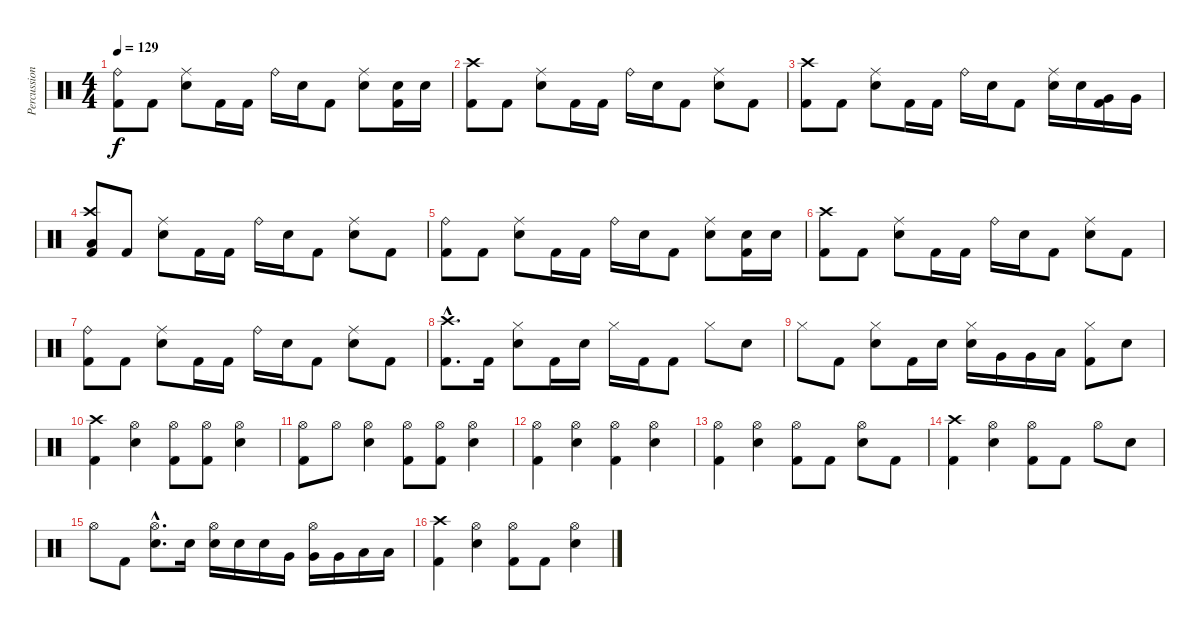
\track ("Percussions" "Percussion") {instrument percussion}
\staff {score}
\articulation defaults
\ts (4 4)
\tempo 129
\clef neutral
\ks c
("Ride (bell)" "Kick (hit) 2").8{dy f} "Kick (hit) 2".8 ("Ride (middle)" "Electric Snare (hit)").8 "Kick (hit) 2".16 "Kick (hit) 2".16 "Ride (bell)".16 "Electric Snare (hit)".16 "Kick (hit) 2".8 ("Ride (middle)" "Electric Snare (hit)").8 ("Electric Snare (hit)" "Kick (hit) 2").16 "Electric Snare (hit)".16 |
("Crash high (hit)" "Kick (hit) 2").8 "Kick (hit) 2".8 ("Ride (middle)" "Electric Snare (hit)").8 "Kick (hit) 2".16 "Kick (hit) 2".16 "Ride (bell)".16 "Electric Snare (hit)".16 "Kick (hit) 2".8 ("Ride (middle)" "Electric Snare (hit)").8 "Kick (hit) 2".8 |
("Crash high (hit)" "Kick (hit) 2").8 "Kick (hit) 2".8 ("Ride (middle)" "Electric Snare (hit)").8 "Kick (hit) 2".16 "Kick (hit) 2".16 "Ride (bell)".16 "Electric Snare (hit)".16 "Kick (hit) 2".8 ("Ride (middle)" "Electric Snare (hit)").16 "Electric Snare (hit)".16 ("Very Low Tom (hit)" "Kick (hit) 2").16 "Very Low Tom (hit)".16 |
("Crash high (hit)" "Low Floor Tom (hit)" "Kick (hit) 2").8 "Kick (hit) 2".8 ("Ride (middle)" "Electric Snare (hit)").8 "Kick (hit) 2".16 "Kick (hit) 2".16 "Ride (bell)".16 "Electric Snare (hit)".16 "Kick (hit) 2".8 ("Ride (middle)" "Electric Snare (hit)").8 "Kick (hit) 2".8 |
("Ride (bell)" "Kick (hit) 2").8 "Kick (hit) 2".8 ("Ride (middle)" "Electric Snare (hit)").8 "Kick (hit) 2".16 "Kick (hit) 2".16 "Ride (bell)".16 "Electric Snare (hit)".16 "Kick (hit) 2".8 ("Ride (middle)" "Electric Snare (hit)").8 ("Electric Snare (hit)" "Kick (hit) 2").16 "Electric Snare (hit)".16 |
("Crash high (hit)" "Kick (hit) 2").8 "Kick (hit) 2".8 ("Ride (middle)" "Electric Snare (hit)").8 "Kick (hit) 2".16 "Kick (hit) 2".16 "Ride (bell)".16 "Electric Snare (hit)".16 "Kick (hit) 2".8 ("Ride (middle)" "Electric Snare (hit)").8 "Kick (hit) 2".8 |
("Ride (bell)" "Kick (hit) 2").8 "Kick (hit) 2".8 ("Ride (middle)" "Electric Snare (hit)").8 "Kick (hit) 2".16 "Kick (hit) 2".16 "Ride (bell)".16 "Electric Snare (hit)".16 "Kick (hit) 2".8 ("Ride (middle)" "Electric Snare (hit)").8 "Kick (hit) 2".8 |
("Crash high (hit)"{hac} "Kick (hit) 2"{hac}).8{d} "Kick (hit) 2".16 ("Hi-Hat (closed)" "Electric Snare (hit)").8 "Kick (hit) 2".16 "Electric Snare (hit)".16 "Hi-Hat (closed)".16 "Kick (hit) 2".16 "Kick (hit) 2".8 "Hi-Hat (closed)".8 "Electric Snare (hit)".8 |
"Hi-Hat (closed)".8 "Kick (hit) 2".8 ("Hi-Hat (closed)" "Electric Snare (hit)").8 "Kick (hit) 2".16 "Electric Snare (hit)".16 ("Hi-Hat (closed)" "Electric Snare (hit)").16 "Very Low Tom (hit)".16 "Very Low Tom (hit)".16 "Low Floor Tom (hit)".16 ("Hi-Hat (closed)" "Kick (hit) 2").8 "Electric Snare (hit)".8 |
("Crash high (hit)" "Kick (hit) 2").4 ("Hi-Hat (open)" "Electric Snare (hit)").4 ("Hi-Hat (open)" "Kick (hit) 2").8 ("Hi-Hat (open)" "Kick (hit) 2").8 ("Hi-Hat (open)" "Electric Snare (hit)").4 |
("Hi-Hat (open)" "Kick (hit) 2").8 "Hi-Hat (open)".8 ("Hi-Hat (open)" "Electric Snare (hit)").4 ("Hi-Hat (open)" "Kick (hit) 2").8 ("Hi-Hat (open)" "Kick (hit) 2").8 ("Hi-Hat (open)" "Electric Snare (hit)").4 |
("Hi-Hat (open)" "Kick (hit) 2").4 ("Hi-Hat (open)" "Electric Snare (hit)").4 ("Hi-Hat (open)" "Kick (hit) 2").4 ("Hi-Hat (open)" "Electric Snare (hit)").4 |
("Hi-Hat (open)" "Kick (hit) 2").4 ("Hi-Hat (open)" "Electric Snare (hit)").4 ("Hi-Hat (open)" "Kick (hit) 2").8 "Kick (hit) 2".8 ("Hi-Hat (open)" "Electric Snare (hit)").8 "Kick (hit) 2".8 |
("Crash high (hit)" "Kick (hit) 2").4 ("Hi-Hat (open)" "Electric Snare (hit)").4 ("Hi-Hat (open)" "Kick (hit) 2").8 "Kick (hit) 2".8 "Hi-Hat (open)".8 "Electric Snare (hit)".8 |
"Hi-Hat (open)".8 "Kick (hit) 2".8 ("Hi-Hat (open)"{hac} "Electric Snare (hit)"{hac}).8{d} "Electric Snare (hit)".16 ("Hi-Hat (open)" "Electric Snare (hit)").16 "Electric Snare (hit)".16 "Electric Snare (hit)".16 "Very Low Tom (hit)".16 ("Hi-Hat (open)" "Very Low Tom (hit)").16 "Very Low Tom (hit)".16 "Low Floor Tom (hit)".16 "Low Floor Tom (hit)".16 |
("Crash high (hit)" "Kick (hit) 2").4 ("Hi-Hat (open)" "Electric Snare (hit)").4 ("Hi-Hat (open)" "Kick (hit) 2").8 "Kick (hit) 2".8 ("Hi-Hat (open)" "Electric Snare (hit)").4
